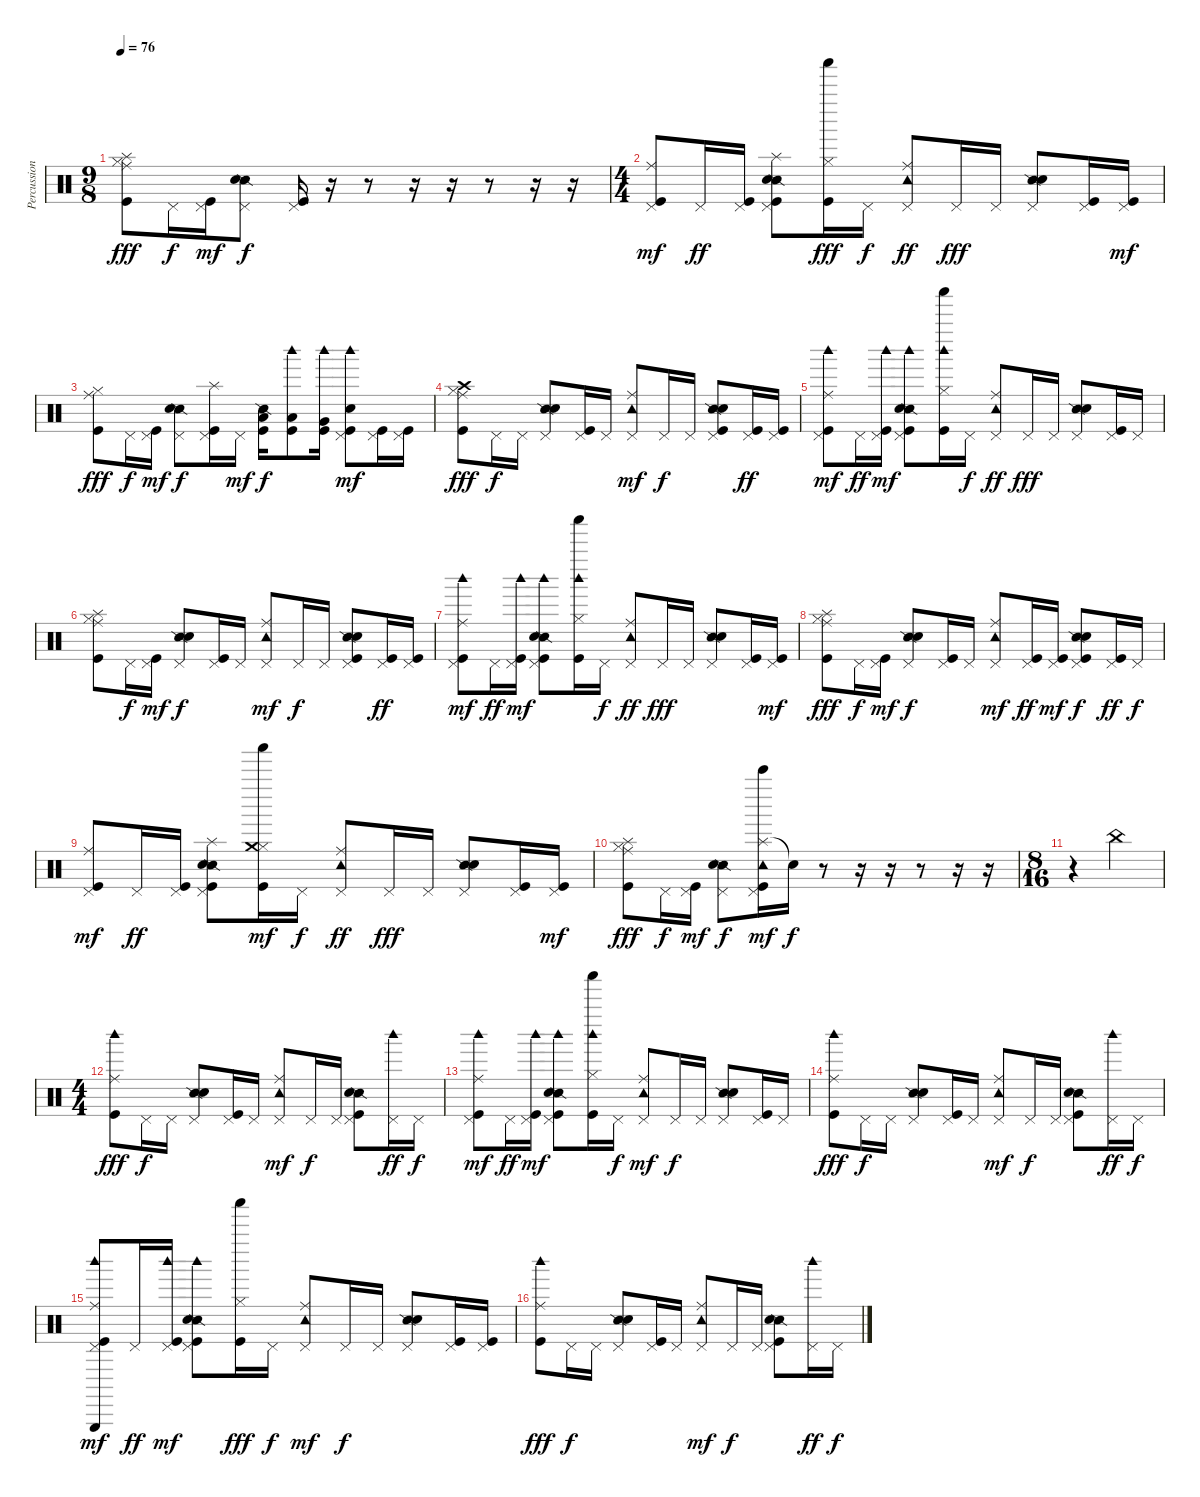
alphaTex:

\track ("Percussion" "Percussion") {instrument percussion}
\staff {score}
\articulation defaults
\ts (9 8)
\tempo 76
\clef neutral
\ks c
("Splash (hit)" "Ride (middle)" "Kick (hit)" "Hi-Hat (closed)").8{dy fff} "Pedal Hi-Hat (hit)".16{dy f} ("Pedal Hi-Hat (hit)" "Kick (hit)").16{dy mf} ("Pedal Hi-Hat (hit)" "Snare (side stick) 2" "Hand Clap (hit)").8{dy f} ("Pedal Hi-Hat (hit)" "Kick (hit)").16 r.16 r.8 r.16 r.16 r.8 r.16 r.16 |
\ts (4 4)
("Pedal Hi-Hat (hit)" "Ride (middle)" "Kick (hit)").8{dy mf} "Pedal Hi-Hat (hit)".16{dy ff} ("Pedal Hi-Hat (hit)" "Kick (hit)").16 ("Splash (hit)" "Pedal Hi-Hat (hit)" "Snare (side stick) 2" "Kick (hit)" "Hand Clap (hit)").8 ("Hi-Hat (closed)" "Shaker (hit)" "Kick (hit)").16{dy fff} "Pedal Hi-Hat (hit)".16{dy f} ("Pedal Hi-Hat (hit)" "Ride (middle)" "Tambourine (hit)").8{dy ff} "Pedal Hi-Hat (hit)".16{dy fff} "Pedal Hi-Hat (hit)".16 ("Pedal Hi-Hat (hit)" "Snare (side stick) 2" "Hand Clap (hit)").8 ("Pedal Hi-Hat (hit)" "Kick (hit)").16 ("Pedal Hi-Hat (hit)" "Kick (hit)").16{dy mf} |
("Ride (middle)" "Kick (hit)" "Hi-Hat (closed)").8{dy fff} "Pedal Hi-Hat (hit)".16{dy f} ("Pedal Hi-Hat (hit)" "Kick (hit)").16{dy mf} ("Pedal Hi-Hat (hit)" "Snare (side stick) 2" "Hand Clap (hit)").8{dy f} ("Pedal Hi-Hat (hit)" "Kick (hit)" "Splash (hit)").16 "Pedal Hi-Hat (hit)".16{dy mf} ("Low Floor Tom (hit)" "Kick (hit)" "Snare (side stick) 2").16{dy f} ("Low Floor Tom (hit)" "Kick (hit)" "Woodblock high (hit)").8 ("Very Low Tom (hit)" "Kick (hit)" "Woodblock high (hit)").16 ("Pedal Hi-Hat (hit)" "Hand Clap (hit)" "Kick (hit)" "Woodblock high (hit)").8{dy mf} ("Pedal Hi-Hat (hit)" "Kick (hit)").16 ("Pedal Hi-Hat (hit)" "Kick (hit)").16 |
("Crash high (hit)" "Ride (middle)" "Kick (hit)" "Hi-Hat (closed)").8{dy fff} "Pedal Hi-Hat (hit)".16{dy f} "Pedal Hi-Hat (hit)".16 ("Pedal Hi-Hat (hit)" "Snare (side stick) 2" "Hand Clap (hit)").8 ("Pedal Hi-Hat (hit)" "Kick (hit)").16 "Pedal Hi-Hat (hit)".16 ("Pedal Hi-Hat (hit)" "Tambourine (hit)" "Ride (middle)").8{dy mf} "Pedal Hi-Hat (hit)".16{dy f} "Pedal Hi-Hat (hit)".16 ("Pedal Hi-Hat (hit)" "Snare (side stick) 2" "Kick (hit)" "Hand Clap (hit)").8 ("Pedal Hi-Hat (hit)" "Kick (hit)").16{dy ff} ("Pedal Hi-Hat (hit)" "Kick (hit)").16 |
("Pedal Hi-Hat (hit)" "Ride (middle)" "Kick (hit)" "Woodblock high (hit)").8{dy mf} "Pedal Hi-Hat (hit)".16{dy ff} ("Pedal Hi-Hat (hit)" "Kick (hit)" "Woodblock high (hit)").16{dy mf} ("Pedal Hi-Hat (hit)" "Snare (side stick) 2" "Kick (hit)" "Woodblock high (hit)" "Hand Clap (hit)").8 ("Hi-Hat (closed)" "Shaker (hit)" "Kick (hit)" "Woodblock high (hit)").16 "Pedal Hi-Hat (hit)".16{dy f} ("Pedal Hi-Hat (hit)" "Ride (middle)" "Tambourine (hit)").8{dy ff} "Pedal Hi-Hat (hit)".16{dy fff} "Pedal Hi-Hat (hit)".16 ("Pedal Hi-Hat (hit)" "Snare (side stick) 2" "Hand Clap (hit)").8 ("Pedal Hi-Hat (hit)" "Kick (hit)").16 "Pedal Hi-Hat (hit)".16 |
("Splash (hit)" "Ride (middle)" "Kick (hit)" "Hi-Hat (closed)").8 "Pedal Hi-Hat (hit)".16{dy f} ("Pedal Hi-Hat (hit)" "Kick (hit)").16{dy mf} ("Pedal Hi-Hat (hit)" "Snare (side stick) 2" "Hand Clap (hit)").8{dy f} ("Pedal Hi-Hat (hit)" "Kick (hit)").16 "Pedal Hi-Hat (hit)".16 ("Pedal Hi-Hat (hit)" "Tambourine (hit)" "Ride (middle)").8{dy mf} "Pedal Hi-Hat (hit)".16{dy f} "Pedal Hi-Hat (hit)".16 ("Pedal Hi-Hat (hit)" "Snare (side stick) 2" "Kick (hit)" "Hand Clap (hit)").8 ("Pedal Hi-Hat (hit)" "Kick (hit)").16{dy ff} ("Pedal Hi-Hat (hit)" "Kick (hit)").16 |
("Pedal Hi-Hat (hit)" "Ride (middle)" "Kick (hit)" "Woodblock high (hit)").8{dy mf} "Pedal Hi-Hat (hit)".16{dy ff} ("Pedal Hi-Hat (hit)" "Kick (hit)" "Woodblock high (hit)").16{dy mf} ("Pedal Hi-Hat (hit)" "Snare (side stick) 2" "Kick (hit)" "Woodblock high (hit)" "Hand Clap (hit)").8 ("Hi-Hat (closed)" "Shaker (hit)" "Kick (hit)" "Woodblock high (hit)").16 "Pedal Hi-Hat (hit)".16{dy f} ("Pedal Hi-Hat (hit)" "Ride (middle)" "Tambourine (hit)").8{dy ff} "Pedal Hi-Hat (hit)".16{dy fff} "Pedal Hi-Hat (hit)".16 ("Pedal Hi-Hat (hit)" "Snare (side stick) 2" "Hand Clap (hit)").8 ("Pedal Hi-Hat (hit)" "Kick (hit)").16 ("Pedal Hi-Hat (hit)" "Kick (hit)").16{dy mf} |
("Splash (hit)" "Ride (middle)" "Kick (hit)" "Hi-Hat (closed)").8{dy fff} "Pedal Hi-Hat (hit)".16{dy f} ("Pedal Hi-Hat (hit)" "Kick (hit)").16{dy mf} ("Pedal Hi-Hat (hit)" "Snare (side stick) 2" "Hand Clap (hit)").8{dy f} ("Pedal Hi-Hat (hit)" "Kick (hit)").16 "Pedal Hi-Hat (hit)".16 ("Pedal Hi-Hat (hit)" "Tambourine (hit)" "Ride (middle)").8{dy mf} ("Pedal Hi-Hat (hit)" "Kick (hit)").16{dy ff} ("Pedal Hi-Hat (hit)" "Kick (hit)").16{dy mf} ("Pedal Hi-Hat (hit)" "Snare (side stick) 2" "Kick (hit)" "Hand Clap (hit)").8{dy f} ("Pedal Hi-Hat (hit)" "Kick (hit)").16{dy ff} "Pedal Hi-Hat (hit)".16{dy f} |
("Pedal Hi-Hat (hit)" "Ride (middle)" "Kick (hit)").8{dy mf} "Pedal Hi-Hat (hit)".16{dy ff} ("Pedal Hi-Hat (hit)" "Kick (hit)").16 ("Splash (hit)" "Pedal Hi-Hat (hit)" "Snare (side stick) 2" "Kick (hit)" "Hand Clap (hit)").8 ("Hi-Hat (closed)" "Shaker (hit)" "Kick (hit)" "Crash medium (hit)").16{dy mf} "Pedal Hi-Hat (hit)".16{dy f} ("Pedal Hi-Hat (hit)" "Ride (middle)" "Tambourine (hit)").8{dy ff} "Pedal Hi-Hat (hit)".16{dy fff} "Pedal Hi-Hat (hit)".16 ("Pedal Hi-Hat (hit)" "Snare (side stick) 2" "Hand Clap (hit)").8 ("Pedal Hi-Hat (hit)" "Kick (hit)").16 ("Pedal Hi-Hat (hit)" "Kick (hit)").16{dy mf} |
("Splash (hit)" "Ride (middle)" "Kick (hit)" "Hi-Hat (closed)").8{dy fff} "Pedal Hi-Hat (hit)".16{dy f} ("Pedal Hi-Hat (hit)" "Kick (hit)").16{dy mf} ("Pedal Hi-Hat (hit)" "Snare (side stick) 2" "Hand Clap (hit)").8{dy f} ("Splash (hit)" "Pedal Hi-Hat (hit)" "Tambourine (hit)" "Kick (hit)" "Bell Tree (hit)").16{dy mf} "Snare (hit)"{t}.16{dy f} r.8 r.16 r.16 r.8 r.16 r.16 |
\ts (8 16)
r.4 "China (hit)".4 |
\ts (4 4)
("Ride (middle)" "Woodblock high (hit)" "Kick (hit)").8{dy fff} "Pedal Hi-Hat (hit)".16{dy f} "Pedal Hi-Hat (hit)".16 ("Pedal Hi-Hat (hit)" "Snare (side stick) 2" "Hand Clap (hit)").8 ("Pedal Hi-Hat (hit)" "Kick (hit)").16 "Pedal Hi-Hat (hit)".16 ("Pedal Hi-Hat (hit)" "Tambourine (hit)" "Ride (middle)").8{dy mf} "Pedal Hi-Hat (hit)".16{dy f} "Pedal Hi-Hat (hit)".16 ("Pedal Hi-Hat (hit)" "Snare (side stick) 2" "Kick (hit)" "Hand Clap (hit)").8 ("Pedal Hi-Hat (hit)" "Woodblock high (hit)").16{dy ff} "Pedal Hi-Hat (hit)".16{dy f} |
("Pedal Hi-Hat (hit)" "Ride (middle)" "Kick (hit)" "Woodblock high (hit)").8{dy mf} "Pedal Hi-Hat (hit)".16{dy ff} ("Pedal Hi-Hat (hit)" "Kick (hit)" "Woodblock high (hit)").16{dy mf} ("Pedal Hi-Hat (hit)" "Snare (side stick) 2" "Kick (hit)" "Woodblock high (hit)" "Hand Clap (hit)").8 ("Hi-Hat (closed)" "Shaker (hit)" "Kick (hit)" "Woodblock high (hit)").16 "Pedal Hi-Hat (hit)".16{dy f} ("Pedal Hi-Hat (hit)" "Ride (middle)" "Tambourine (hit)").8{dy mf} "Pedal Hi-Hat (hit)".16{dy f} "Pedal Hi-Hat (hit)".16 ("Pedal Hi-Hat (hit)" "Snare (side stick) 2" "Hand Clap (hit)").8 ("Pedal Hi-Hat (hit)" "Kick (hit)").16 "Pedal Hi-Hat (hit)".16 |
("Ride (middle)" "Woodblock high (hit)" "Kick (hit)").8{dy fff} "Pedal Hi-Hat (hit)".16{dy f} "Pedal Hi-Hat (hit)".16 ("Pedal Hi-Hat (hit)" "Snare (side stick) 2" "Hand Clap (hit)").8 ("Pedal Hi-Hat (hit)" "Kick (hit)").16 "Pedal Hi-Hat (hit)".16 ("Pedal Hi-Hat (hit)" "Tambourine (hit)" "Ride (middle)").8{dy mf} "Pedal Hi-Hat (hit)".16{dy f} "Pedal Hi-Hat (hit)".16 ("Pedal Hi-Hat (hit)" "Snare (side stick) 2" "Kick (hit)" "Hand Clap (hit)").8 ("Pedal Hi-Hat (hit)" "Woodblock high (hit)").16{dy ff} "Pedal Hi-Hat (hit)".16{dy f} |
("Pedal Hi-Hat (hit)" "Ride (middle)" "Kick (hit)" "Woodblock high (hit)" "Triangle (hit)").8{dy mf} "Pedal Hi-Hat (hit)".16{dy ff} ("Pedal Hi-Hat (hit)" "Kick (hit)" "Woodblock high (hit)").16{dy mf} ("Pedal Hi-Hat (hit)" "Snare (side stick) 2" "Kick (hit)" "Woodblock high (hit)" "Hand Clap (hit)").8 ("Hi-Hat (closed)" "Shaker (hit)" "Kick (hit)").16{dy fff} "Pedal Hi-Hat (hit)".16{dy f} ("Pedal Hi-Hat (hit)" "Ride (middle)" "Tambourine (hit)").8{dy mf} "Pedal Hi-Hat (hit)".16{dy f} "Pedal Hi-Hat (hit)".16 ("Pedal Hi-Hat (hit)" "Snare (side stick) 2" "Hand Clap (hit)").8 ("Pedal Hi-Hat (hit)" "Kick (hit)").16 ("Pedal Hi-Hat (hit)" "Kick (hit)").16 |
("Ride (middle)" "Woodblock high (hit)" "Kick (hit)").8{dy fff} "Pedal Hi-Hat (hit)".16{dy f} "Pedal Hi-Hat (hit)".16 ("Pedal Hi-Hat (hit)" "Snare (side stick) 2" "Hand Clap (hit)").8 ("Pedal Hi-Hat (hit)" "Kick (hit)").16 "Pedal Hi-Hat (hit)".16 ("Pedal Hi-Hat (hit)" "Tambourine (hit)" "Ride (middle)").8{dy mf} "Pedal Hi-Hat (hit)".16{dy f} "Pedal Hi-Hat (hit)".16 ("Pedal Hi-Hat (hit)" "Snare (side stick) 2" "Kick (hit)" "Hand Clap (hit)").8 ("Pedal Hi-Hat (hit)" "Woodblock high (hit)").16{dy ff} "Pedal Hi-Hat (hit)".16{dy f}
